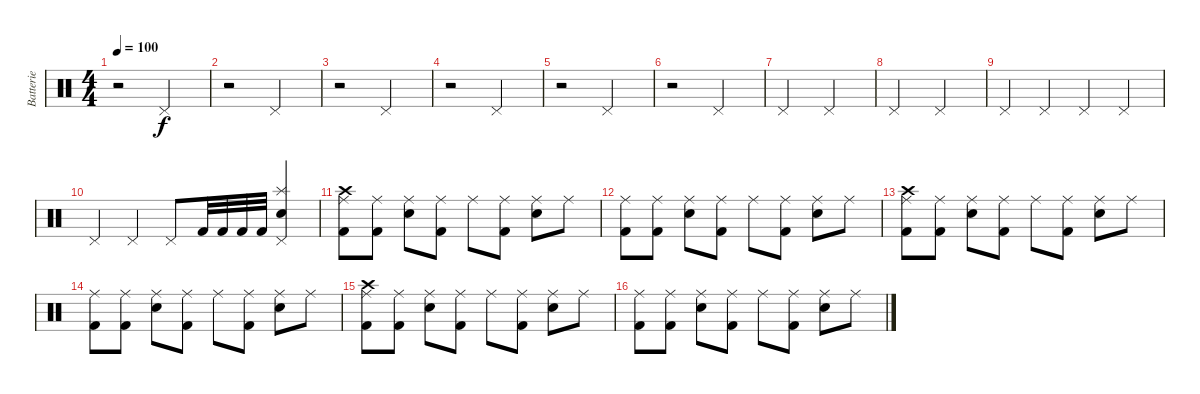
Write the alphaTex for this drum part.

\track ("Batterie" "Batterie") {instrument percussion}
\staff {score}
\articulation defaults
\ts (4 4)
\tempo 100
\clef neutral
\ks c
r.2{dy f} "Pedal Hi-Hat (hit)".2 |
r.2 "Pedal Hi-Hat (hit)".2 |
r.2 "Pedal Hi-Hat (hit)".2 |
r.2 "Pedal Hi-Hat (hit)".2 |
r.2 "Pedal Hi-Hat (hit)".2 |
r.2 "Pedal Hi-Hat (hit)".2 |
"Pedal Hi-Hat (hit)".2 "Pedal Hi-Hat (hit)".2 |
"Pedal Hi-Hat (hit)".2 "Pedal Hi-Hat (hit)".2 |
"Pedal Hi-Hat (hit)".4 "Pedal Hi-Hat (hit)".4 "Pedal Hi-Hat (hit)".4 "Pedal Hi-Hat (hit)".4 |
"Pedal Hi-Hat (hit)".4 "Pedal Hi-Hat (hit)".4 "Pedal Hi-Hat (hit)".8 "Kick (hit) 2".32 "Kick (hit) 2".32 "Kick (hit) 2".32 "Kick (hit) 2".32 ("Pedal Hi-Hat (hit)" "Splash (hit)" "Electric Snare (hit)").4 |
("Crash high (hit)" "Ride (middle)" "Kick (hit) 2").8 ("Ride (middle)" "Kick (hit) 2").8 ("Ride (middle)" "Electric Snare (hit)").8 ("Ride (middle)" "Kick (hit) 2").8 "Ride (middle)".8 ("Ride (middle)" "Kick (hit) 2").8 ("Ride (middle)" "Electric Snare (hit)").8 "Ride (middle)".8 |
("Ride (middle)" "Kick (hit) 2").8 ("Ride (middle)" "Kick (hit) 2").8 ("Ride (middle)" "Electric Snare (hit)").8 ("Ride (middle)" "Kick (hit) 2").8 "Ride (middle)".8 ("Ride (middle)" "Kick (hit) 2").8 ("Ride (middle)" "Electric Snare (hit)").8 "Ride (middle)".8 |
("Crash high (hit)" "Ride (middle)" "Kick (hit) 2").8 ("Ride (middle)" "Kick (hit) 2").8 ("Ride (middle)" "Electric Snare (hit)").8 ("Ride (middle)" "Kick (hit) 2").8 "Ride (middle)".8 ("Ride (middle)" "Kick (hit) 2").8 ("Ride (middle)" "Electric Snare (hit)").8 "Ride (middle)".8 |
("Ride (middle)" "Kick (hit) 2").8 ("Ride (middle)" "Kick (hit) 2").8 ("Ride (middle)" "Electric Snare (hit)").8 ("Ride (middle)" "Kick (hit) 2").8 "Ride (middle)".8 ("Ride (middle)" "Kick (hit) 2").8 ("Ride (middle)" "Electric Snare (hit)").8 "Ride (middle)".8 |
("Crash high (hit)" "Ride (middle)" "Kick (hit) 2").8 ("Ride (middle)" "Kick (hit) 2").8 ("Ride (middle)" "Electric Snare (hit)").8 ("Ride (middle)" "Kick (hit) 2").8 "Ride (middle)".8 ("Ride (middle)" "Kick (hit) 2").8 ("Ride (middle)" "Electric Snare (hit)").8 "Ride (middle)".8 |
("Ride (middle)" "Kick (hit) 2").8 ("Ride (middle)" "Kick (hit) 2").8 ("Ride (middle)" "Electric Snare (hit)").8 ("Ride (middle)" "Kick (hit) 2").8 "Ride (middle)".8 ("Ride (middle)" "Kick (hit) 2").8 ("Ride (middle)" "Electric Snare (hit)").8 "Ride (middle)".8
